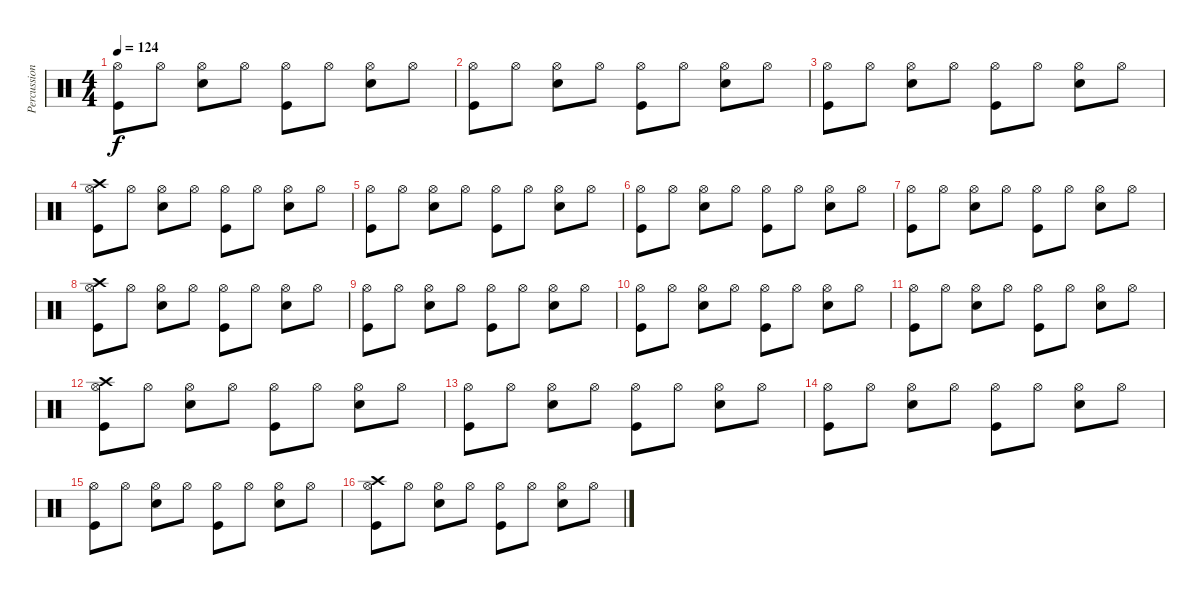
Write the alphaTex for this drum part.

\track ("Percussions" "Percussion") {instrument percussion}
\staff {score}
\articulation defaults
\ts (4 4)
\tempo 124
\clef neutral
\ks c
("Hi-Hat (open)" "Kick (hit)").8{dy f} "Hi-Hat (open)".8 ("Hi-Hat (open)" "Electric Snare (hit)").8 "Hi-Hat (open)".8 ("Hi-Hat (open)" "Kick (hit)").8 "Hi-Hat (open)".8 ("Hi-Hat (open)" "Electric Snare (hit)").8 "Hi-Hat (open)".8 |
("Hi-Hat (open)" "Kick (hit)").8 "Hi-Hat (open)".8 ("Hi-Hat (open)" "Electric Snare (hit)").8 "Hi-Hat (open)".8 ("Hi-Hat (open)" "Kick (hit)").8 "Hi-Hat (open)".8 ("Hi-Hat (open)" "Electric Snare (hit)").8 "Hi-Hat (open)".8 |
("Hi-Hat (open)" "Kick (hit)").8 "Hi-Hat (open)".8 ("Hi-Hat (open)" "Electric Snare (hit)").8 "Hi-Hat (open)".8 ("Hi-Hat (open)" "Kick (hit)").8 "Hi-Hat (open)".8 ("Hi-Hat (open)" "Electric Snare (hit)").8 "Hi-Hat (open)".8 |
("Hi-Hat (open)" "Kick (hit)" "Crash high (hit)").8 "Hi-Hat (open)".8 ("Hi-Hat (open)" "Electric Snare (hit)").8 "Hi-Hat (open)".8 ("Hi-Hat (open)" "Kick (hit)").8 "Hi-Hat (open)".8 ("Hi-Hat (open)" "Electric Snare (hit)").8 "Hi-Hat (open)".8 |
("Hi-Hat (open)" "Kick (hit)").8 "Hi-Hat (open)".8 ("Hi-Hat (open)" "Electric Snare (hit)").8 "Hi-Hat (open)".8 ("Hi-Hat (open)" "Kick (hit)").8 "Hi-Hat (open)".8 ("Hi-Hat (open)" "Electric Snare (hit)").8 "Hi-Hat (open)".8 |
("Hi-Hat (open)" "Kick (hit)").8 "Hi-Hat (open)".8 ("Hi-Hat (open)" "Electric Snare (hit)").8 "Hi-Hat (open)".8 ("Hi-Hat (open)" "Kick (hit)").8 "Hi-Hat (open)".8 ("Hi-Hat (open)" "Electric Snare (hit)").8 "Hi-Hat (open)".8 |
("Hi-Hat (open)" "Kick (hit)").8 "Hi-Hat (open)".8 ("Hi-Hat (open)" "Electric Snare (hit)").8 "Hi-Hat (open)".8 ("Hi-Hat (open)" "Kick (hit)").8 "Hi-Hat (open)".8 ("Hi-Hat (open)" "Electric Snare (hit)").8 "Hi-Hat (open)".8 |
("Hi-Hat (open)" "Kick (hit)" "Crash high (hit)").8 "Hi-Hat (open)".8 ("Hi-Hat (open)" "Electric Snare (hit)").8 "Hi-Hat (open)".8 ("Hi-Hat (open)" "Kick (hit)").8 "Hi-Hat (open)".8 ("Hi-Hat (open)" "Electric Snare (hit)").8 "Hi-Hat (open)".8 |
("Hi-Hat (open)" "Kick (hit)").8 "Hi-Hat (open)".8 ("Hi-Hat (open)" "Electric Snare (hit)").8 "Hi-Hat (open)".8 ("Hi-Hat (open)" "Kick (hit)").8 "Hi-Hat (open)".8 ("Hi-Hat (open)" "Electric Snare (hit)").8 "Hi-Hat (open)".8 |
("Hi-Hat (open)" "Kick (hit)").8 "Hi-Hat (open)".8 ("Hi-Hat (open)" "Electric Snare (hit)").8 "Hi-Hat (open)".8 ("Hi-Hat (open)" "Kick (hit)").8 "Hi-Hat (open)".8 ("Hi-Hat (open)" "Electric Snare (hit)").8 "Hi-Hat (open)".8 |
("Hi-Hat (open)" "Kick (hit)").8 "Hi-Hat (open)".8 ("Hi-Hat (open)" "Electric Snare (hit)").8 "Hi-Hat (open)".8 ("Hi-Hat (open)" "Kick (hit)").8 "Hi-Hat (open)".8 ("Hi-Hat (open)" "Electric Snare (hit)").8 "Hi-Hat (open)".8 |
("Hi-Hat (open)" "Kick (hit)" "Crash high (hit)").8 "Hi-Hat (open)".8 ("Hi-Hat (open)" "Electric Snare (hit)").8 "Hi-Hat (open)".8 ("Hi-Hat (open)" "Kick (hit)").8 "Hi-Hat (open)".8 ("Hi-Hat (open)" "Electric Snare (hit)").8 "Hi-Hat (open)".8 |
("Hi-Hat (open)" "Kick (hit)").8 "Hi-Hat (open)".8 ("Hi-Hat (open)" "Electric Snare (hit)").8 "Hi-Hat (open)".8 ("Hi-Hat (open)" "Kick (hit)").8 "Hi-Hat (open)".8 ("Hi-Hat (open)" "Electric Snare (hit)").8 "Hi-Hat (open)".8 |
("Hi-Hat (open)" "Kick (hit)").8 "Hi-Hat (open)".8 ("Hi-Hat (open)" "Electric Snare (hit)").8 "Hi-Hat (open)".8 ("Hi-Hat (open)" "Kick (hit)").8 "Hi-Hat (open)".8 ("Hi-Hat (open)" "Electric Snare (hit)").8 "Hi-Hat (open)".8 |
("Hi-Hat (open)" "Kick (hit)").8 "Hi-Hat (open)".8 ("Hi-Hat (open)" "Electric Snare (hit)").8 "Hi-Hat (open)".8 ("Hi-Hat (open)" "Kick (hit)").8 "Hi-Hat (open)".8 ("Hi-Hat (open)" "Electric Snare (hit)").8 "Hi-Hat (open)".8 |
("Hi-Hat (open)" "Kick (hit)" "Crash high (hit)").8 "Hi-Hat (open)".8 ("Hi-Hat (open)" "Electric Snare (hit)").8 "Hi-Hat (open)".8 ("Hi-Hat (open)" "Kick (hit)").8 "Hi-Hat (open)".8 ("Hi-Hat (open)" "Electric Snare (hit)").8 "Hi-Hat (open)".8
